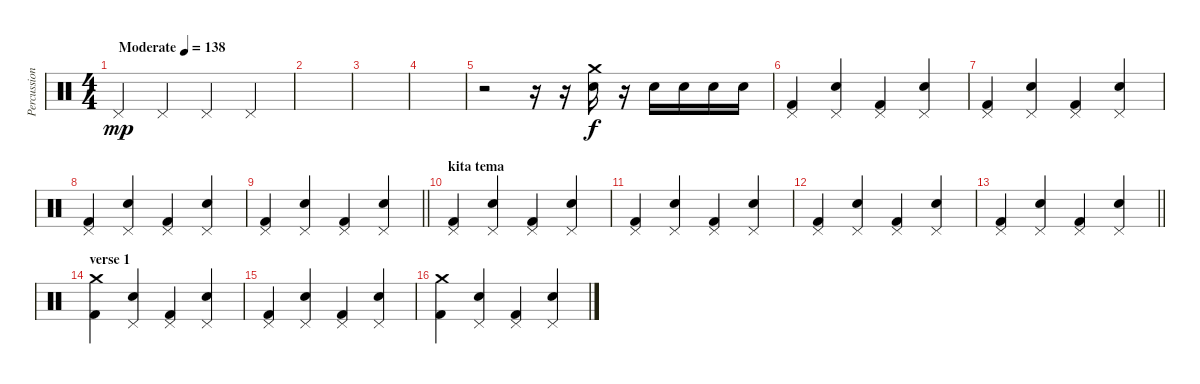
\track ("Percussion" "Percussion") {instrument percussion}
\staff {score}
\articulation defaults
\ts (4 4)
\tempo (138 "Moderate")
\clef neutral
\ks c "Pedal Hi-Hat (hit)".4{dy mp} "Pedal Hi-Hat (hit)".4 "Pedal Hi-Hat (hit)".4 "Pedal Hi-Hat (hit)".4
|
|
|
|
r.2 r.16 r.16 ("Crash medium (hit)" "Snare (hit) 2").16{dy f} r.16 "Snare (hit) 2".16 "Snare (hit) 2".16 "Snare (hit) 2".16 "Snare (hit) 2".16 |
("Pedal Hi-Hat (hit)" "Kick (hit) 2").4 ("Pedal Hi-Hat (hit)" "Snare (hit) 2").4 ("Pedal Hi-Hat (hit)" "Kick (hit) 2").4 ("Pedal Hi-Hat (hit)" "Snare (hit) 2").4 |
("Pedal Hi-Hat (hit)" "Kick (hit) 2").4 ("Pedal Hi-Hat (hit)" "Snare (hit) 2").4 ("Pedal Hi-Hat (hit)" "Kick (hit) 2").4 ("Pedal Hi-Hat (hit)" "Snare (hit) 2").4 |
("Pedal Hi-Hat (hit)" "Kick (hit) 2").4 ("Pedal Hi-Hat (hit)" "Snare (hit) 2").4 ("Pedal Hi-Hat (hit)" "Kick (hit) 2").4 ("Pedal Hi-Hat (hit)" "Snare (hit) 2").4 |
\barLineRight lightlight
("Pedal Hi-Hat (hit)" "Kick (hit) 2").4 ("Pedal Hi-Hat (hit)" "Snare (hit) 2").4 ("Pedal Hi-Hat (hit)" "Kick (hit) 2").4 ("Pedal Hi-Hat (hit)" "Snare (hit) 2").4 |
\section ("" "kita tema")
("Pedal Hi-Hat (hit)" "Kick (hit) 2").4 ("Pedal Hi-Hat (hit)" "Snare (hit) 2").4 ("Pedal Hi-Hat (hit)" "Kick (hit) 2").4 ("Pedal Hi-Hat (hit)" "Snare (hit) 2").4 |
("Pedal Hi-Hat (hit)" "Kick (hit) 2").4 ("Pedal Hi-Hat (hit)" "Snare (hit) 2").4 ("Pedal Hi-Hat (hit)" "Kick (hit) 2").4 ("Pedal Hi-Hat (hit)" "Snare (hit) 2").4 |
("Pedal Hi-Hat (hit)" "Kick (hit) 2").4 ("Pedal Hi-Hat (hit)" "Snare (hit) 2").4 ("Pedal Hi-Hat (hit)" "Kick (hit) 2").4 ("Pedal Hi-Hat (hit)" "Snare (hit) 2").4 |
\barLineRight lightlight
("Pedal Hi-Hat (hit)" "Kick (hit) 2").4 ("Pedal Hi-Hat (hit)" "Snare (hit) 2").4 ("Pedal Hi-Hat (hit)" "Kick (hit) 2").4 ("Pedal Hi-Hat (hit)" "Snare (hit) 2").4 |
\section ("" "verse 1")
("Crash medium (hit)" "Kick (hit) 2").4 ("Pedal Hi-Hat (hit)" "Snare (hit) 2").4 ("Pedal Hi-Hat (hit)" "Kick (hit) 2").4 ("Pedal Hi-Hat (hit)" "Snare (hit) 2").4 |
("Pedal Hi-Hat (hit)" "Kick (hit) 2").4 ("Pedal Hi-Hat (hit)" "Snare (hit) 2").4 ("Pedal Hi-Hat (hit)" "Kick (hit) 2").4 ("Pedal Hi-Hat (hit)" "Snare (hit) 2").4 |
("Crash medium (hit)" "Kick (hit) 2").4 ("Pedal Hi-Hat (hit)" "Snare (hit) 2").4 ("Pedal Hi-Hat (hit)" "Kick (hit) 2").4 ("Pedal Hi-Hat (hit)" "Snare (hit) 2").4
